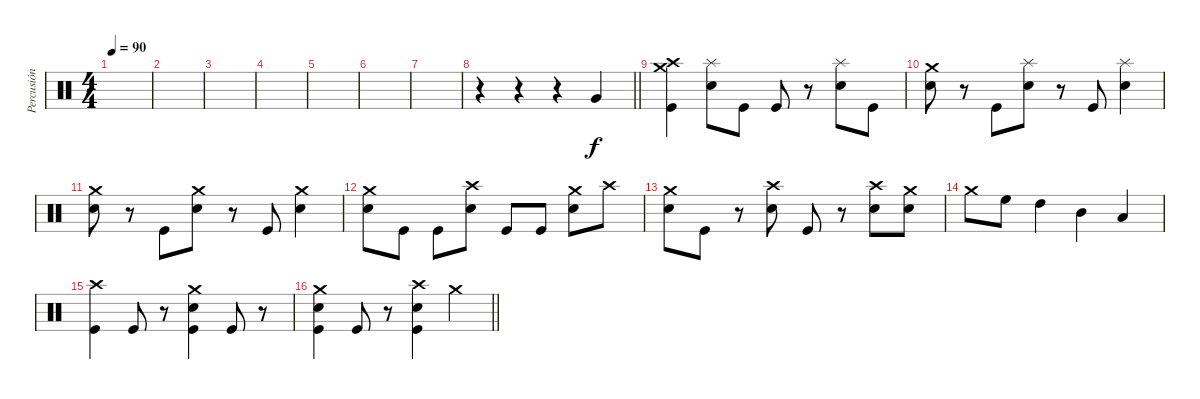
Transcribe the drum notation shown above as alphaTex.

\track ("Percusión" "Percusión") {instrument percussion}
\staff {score}
\articulation defaults
\ts (4 4)
\tempo 90
\clef neutral
\ks c
|
|
|
|
|
|
|
\barLineRight lightlight
r.4 r.4 r.4 "Very Low Tom (hit)".4 |
("Crash high (hit)" "Crash medium (hit)" "Kick (hit)").4 ("Splash (hit)" "Electric Snare (hit)").8 "Kick (hit)".8 "Kick (hit)".8 r.8 ("Splash (hit)" "Electric Snare (hit)").8 "Kick (hit)".8 |
("Crash medium (hit)" "Electric Snare (hit)").8 r.8 "Kick (hit)".8 ("Splash (hit)" "Electric Snare (hit)").8 r.8 "Kick (hit)".8 ("Splash (hit)" "Electric Snare (hit)").4 |
("Crash medium (hit)" "Electric Snare (hit)").8 r.8 "Kick (hit)".8 ("Crash medium (hit)" "Electric Snare (hit)").8 r.8 "Kick (hit)".8 ("Crash medium (hit)" "Electric Snare (hit)").4 |
("Crash medium (hit)" "Electric Snare (hit)").8 "Kick (hit)".8 "Kick (hit)".8 ("Crash high (hit)" "Electric Snare (hit)").8 "Kick (hit)".8 "Kick (hit)".8 ("Crash medium (hit)" "Electric Snare (hit)").8 "Crash high (hit)".8 |
("Crash medium (hit)" "Electric Snare (hit)").8 "Kick (hit)".8 r.8 ("Crash high (hit)" "Electric Snare (hit)").8 "Kick (hit)".8 r.8 ("Crash high (hit)" "Electric Snare (hit)").8 ("Crash medium (hit)" "Electric Snare (hit)").8 |
"Crash medium (hit)".8 "High Floor Tom (hit)".8 "High Tom (hit)".4 "Mid Tom (hit)".4 "Low Tom (hit)".4 |
("Crash high (hit)" "Kick (hit)").4 "Kick (hit)".8 r.8 ("Crash medium (hit)" "Electric Snare (hit)" "Kick (hit)").4 "Kick (hit)".8 r.8 |
\barLineRight lightlight
("Crash medium (hit)" "Electric Snare (hit)" "Kick (hit)").4 "Kick (hit)".8 r.8 ("Crash high (hit)" "Electric Snare (hit)" "Kick (hit)").4 "Crash medium (hit)".4
